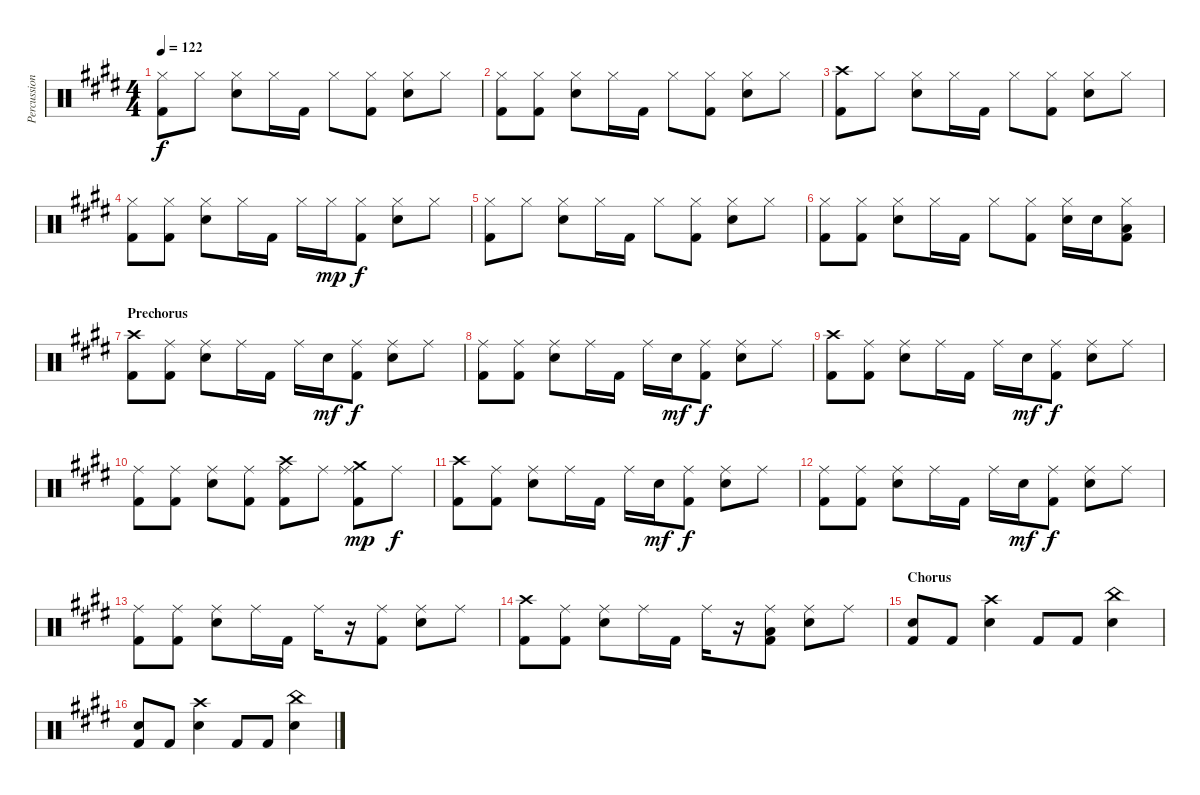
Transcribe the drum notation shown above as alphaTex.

\track ("Percussion" "Percussion") {instrument percussion}
\staff {score}
\articulation defaults
\ts (4 4)
\tempo 122
\clef neutral
\ks e
("Hi-Hat (closed)" "Kick (hit) 2").8{dy f} "Hi-Hat (closed)".8 ("Hi-Hat (closed)" "Snare (hit) 2").8 "Hi-Hat (closed)".16 "Kick (hit) 2".16 "Hi-Hat (closed)".8 ("Hi-Hat (closed)" "Kick (hit) 2").8 ("Hi-Hat (closed)" "Snare (hit) 2").8 "Hi-Hat (closed)".8 |
("Hi-Hat (closed)" "Kick (hit) 2").8 ("Hi-Hat (closed)" "Kick (hit) 2").8 ("Hi-Hat (closed)" "Snare (hit) 2").8 "Hi-Hat (closed)".16 "Kick (hit) 2".16 "Hi-Hat (closed)".8 ("Hi-Hat (closed)" "Kick (hit) 2").8 ("Hi-Hat (closed)" "Snare (hit) 2").8 "Hi-Hat (closed)".8 |
("Crash high (hit)" "Kick (hit) 2").8 "Hi-Hat (closed)".8 ("Hi-Hat (closed)" "Snare (hit) 2").8 "Hi-Hat (closed)".16 "Kick (hit) 2".16 "Hi-Hat (closed)".8 ("Hi-Hat (closed)" "Kick (hit) 2").8 ("Hi-Hat (closed)" "Snare (hit) 2").8 "Hi-Hat (closed)".8 |
("Hi-Hat (closed)" "Kick (hit) 2").8 ("Hi-Hat (closed)" "Kick (hit) 2").8 ("Hi-Hat (closed)" "Snare (hit) 2").8 "Hi-Hat (closed)".16 "Kick (hit) 2".16 "Hi-Hat (closed)".16 "Hi-Hat (closed)".16{dy mp} ("Hi-Hat (closed)" "Kick (hit) 2").8{dy f} ("Hi-Hat (closed)" "Snare (hit) 2").8 "Hi-Hat (closed)".8 |
("Hi-Hat (closed)" "Kick (hit) 2").8 "Hi-Hat (closed)".8 ("Hi-Hat (closed)" "Snare (hit) 2").8 "Hi-Hat (closed)".16 "Kick (hit) 2".16 "Hi-Hat (closed)".8 ("Hi-Hat (closed)" "Kick (hit) 2").8 ("Hi-Hat (closed)" "Snare (hit) 2").8 "Hi-Hat (closed)".8 |
("Hi-Hat (closed)" "Kick (hit) 2").8 ("Hi-Hat (closed)" "Kick (hit) 2").8 ("Hi-Hat (closed)" "Snare (hit) 2").8 "Hi-Hat (closed)".16 "Kick (hit) 2".16 "Hi-Hat (closed)".8 ("Hi-Hat (closed)" "Kick (hit) 2").8 ("Hi-Hat (closed)" "Snare (hit) 2").16 "Snare (hit) 2".16 ("Hi-Hat (closed)" "Low Tom (hit)" "Kick (hit) 2").8 |
\section ("" "Prechorus")
("Crash high (hit)" "Kick (hit) 2").8 ("Ride (middle)" "Kick (hit) 2").8 ("Ride (middle)" "Snare (hit) 2").8 "Ride (middle)".16 "Kick (hit) 2".16 "Ride (middle)".16 "Snare (hit) 2".16{dy mf} ("Ride (middle)" "Kick (hit) 2").8{dy f} ("Ride (middle)" "Snare (hit) 2").8 "Ride (middle)".8 |
("Ride (middle)" "Kick (hit) 2").8 ("Ride (middle)" "Kick (hit) 2").8 ("Ride (middle)" "Snare (hit) 2").8 "Ride (middle)".16 "Kick (hit) 2".16 "Ride (middle)".16 "Snare (hit) 2".16{dy mf} ("Ride (middle)" "Kick (hit) 2").8{dy f} ("Ride (middle)" "Snare (hit) 2").8 "Ride (middle)".8 |
("Crash high (hit)" "Kick (hit) 2").8 ("Ride (middle)" "Kick (hit) 2").8 ("Ride (middle)" "Snare (hit) 2").8 "Ride (middle)".16 "Kick (hit) 2".16 "Ride (middle)".16 "Snare (hit) 2".16{dy mf} ("Ride (middle)" "Kick (hit) 2").8{dy f} ("Ride (middle)" "Snare (hit) 2").8 "Ride (middle)".8 |
("Ride (middle)" "Kick (hit) 2").8 ("Ride (middle)" "Kick (hit) 2").8 ("Ride (middle)" "Snare (hit) 2").8 ("Ride (middle)" "Kick (hit) 2").8 ("Crash high (hit)" "Ride (middle)" "Kick (hit) 2").8 "Ride (middle)".8 ("Crash medium (hit)" "Ride (middle)" "Kick (hit) 2").8{dy mp} "Ride (middle)".8{dy f} |
("Crash high (hit)" "Kick (hit) 2").8 ("Ride (middle)" "Kick (hit) 2").8 ("Ride (middle)" "Snare (hit) 2").8 "Ride (middle)".16 "Kick (hit) 2".16 "Ride (middle)".16 "Snare (hit) 2".16{dy mf} ("Ride (middle)" "Kick (hit) 2").8{dy f} ("Ride (middle)" "Snare (hit) 2").8 "Ride (middle)".8 |
("Ride (middle)" "Kick (hit) 2").8 ("Ride (middle)" "Kick (hit) 2").8 ("Ride (middle)" "Snare (hit) 2").8 "Ride (middle)".16 "Kick (hit) 2".16 "Ride (middle)".16 "Snare (hit) 2".16{dy mf} ("Ride (middle)" "Kick (hit) 2").8{dy f} ("Ride (middle)" "Snare (hit) 2").8 "Ride (middle)".8 |
("Ride (middle)" "Kick (hit) 2").8 ("Ride (middle)" "Kick (hit) 2").8 ("Ride (middle)" "Snare (hit) 2").8 "Ride (middle)".16 "Kick (hit) 2".16 "Ride (middle)".16 r.16 ("Ride (middle)" "Kick (hit) 2").8 ("Ride (middle)" "Snare (hit) 2").8 "Ride (middle)".8 |
("Crash high (hit)" "Kick (hit) 2").8 ("Ride (middle)" "Kick (hit) 2").8 ("Ride (middle)" "Snare (hit) 2").8 "Ride (middle)".16 "Kick (hit) 2".16 "Ride (middle)".16 r.16 ("Ride (middle)" "Low Tom (hit)" "Kick (hit) 2").8 ("Ride (middle)" "Snare (hit) 2").8 "Ride (middle)".8 |
\section ("" "Chorus")
("Snare (hit) 2" "Kick (hit) 2").8 "Kick (hit) 2".8 ("Crash high (hit)" "Snare (hit) 2").4 "Kick (hit) 2".8 "Kick (hit) 2".8 ("China (hit)" "Snare (hit) 2").4 |
("Snare (hit) 2" "Kick (hit) 2").8 "Kick (hit) 2".8 ("Crash high (hit)" "Snare (hit) 2").4 "Kick (hit) 2".8 "Kick (hit) 2".8 ("China (hit)" "Snare (hit) 2").4
